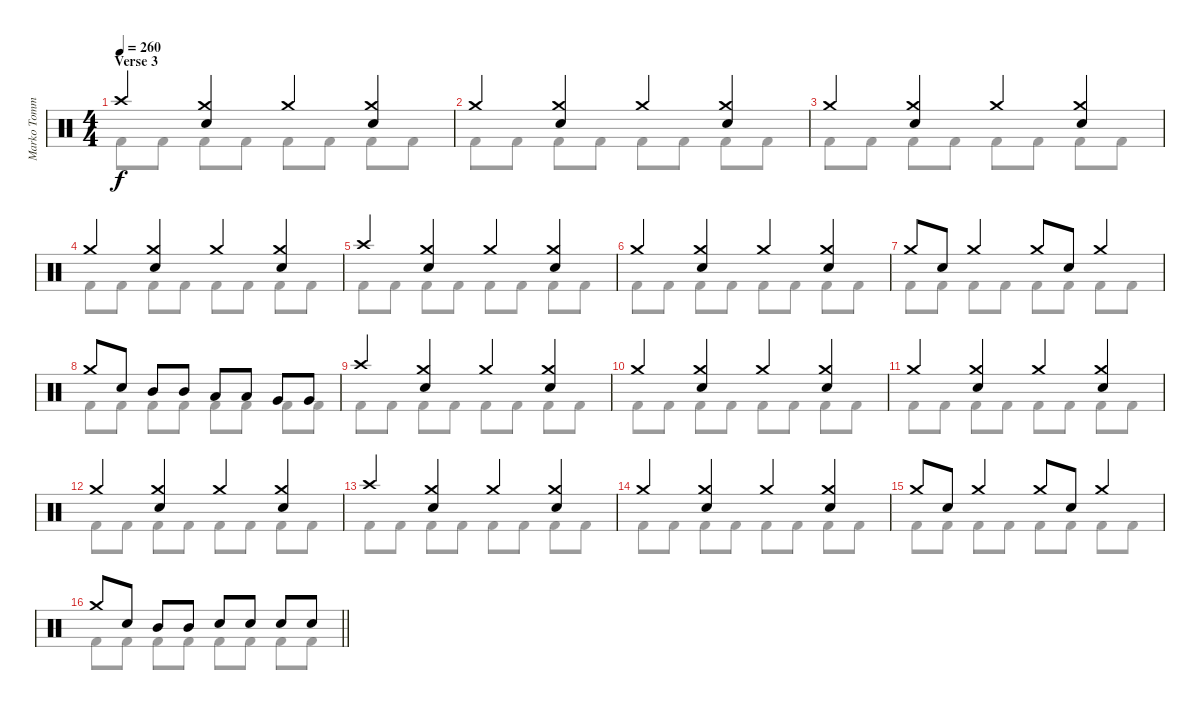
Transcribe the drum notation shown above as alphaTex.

\track ("Marko Tommila (drums)" "Marko Tomm") {instrument percussion}
\staff {score}
\articulation defaults
\voice
\ts (4 4)
\section ("" "Verse 3")
\tempo 260
\clef neutral
\ks aminor "Crash high (hit)".4{dy f}
("Crash medium (hit)" "Electric Snare (hit)").4 "Crash medium (hit)".4 ("Crash medium (hit)" "Electric Snare (hit)").4 |
"Crash medium (hit)".4 ("Crash medium (hit)" "Electric Snare (hit)").4 "Crash medium (hit)".4 ("Crash medium (hit)" "Electric Snare (hit)").4 |
"Crash medium (hit)".4 ("Crash medium (hit)" "Electric Snare (hit)").4 "Crash medium (hit)".4 ("Crash medium (hit)" "Electric Snare (hit)").4 |
"Crash medium (hit)".4 ("Crash medium (hit)" "Electric Snare (hit)").4 "Crash medium (hit)".4 ("Crash medium (hit)" "Electric Snare (hit)").4 |
"Crash high (hit)".4 ("Crash medium (hit)" "Electric Snare (hit)").4 "Crash medium (hit)".4 ("Crash medium (hit)" "Electric Snare (hit)").4 |
"Crash medium (hit)".4 ("Crash medium (hit)" "Electric Snare (hit)").4 "Crash medium (hit)".4 ("Crash medium (hit)" "Electric Snare (hit)").4 |
"Crash medium (hit)".8 "Electric Snare (hit)".8 "Crash medium (hit)".4 "Crash medium (hit)".8 "Electric Snare (hit)".8 "Crash medium (hit)".4 |
"Crash medium (hit)".8 "Electric Snare (hit)".8 "Mid Tom (hit)".8 "Mid Tom (hit)".8 "Low Tom (hit)".8 "Low Tom (hit)".8 "Very Low Tom (hit)".8 "Very Low Tom (hit)".8 |
"Crash high (hit)".4 ("Crash medium (hit)" "Electric Snare (hit)").4 "Crash medium (hit)".4 ("Crash medium (hit)" "Electric Snare (hit)").4 |
"Crash medium (hit)".4 ("Crash medium (hit)" "Electric Snare (hit)").4 "Crash medium (hit)".4 ("Crash medium (hit)" "Electric Snare (hit)").4 |
"Crash medium (hit)".4 ("Crash medium (hit)" "Electric Snare (hit)").4 "Crash medium (hit)".4 ("Crash medium (hit)" "Electric Snare (hit)").4 |
"Crash medium (hit)".4 ("Crash medium (hit)" "Electric Snare (hit)").4 "Crash medium (hit)".4 ("Crash medium (hit)" "Electric Snare (hit)").4 |
"Crash high (hit)".4 ("Crash medium (hit)" "Electric Snare (hit)").4 "Crash medium (hit)".4 ("Crash medium (hit)" "Electric Snare (hit)").4 |
"Crash medium (hit)".4 ("Crash medium (hit)" "Electric Snare (hit)").4 "Crash medium (hit)".4 ("Crash medium (hit)" "Electric Snare (hit)").4 |
"Crash medium (hit)".8 "Electric Snare (hit)".8 "Crash medium (hit)".4 "Crash medium (hit)".8 "Electric Snare (hit)".8 "Crash medium (hit)".4 |
\barLineRight lightlight "Crash medium (hit)".8 "Electric Snare (hit)".8 "Mid Tom (hit)".8 "Mid Tom (hit)".8 "Electric Snare (hit)".8 "Electric Snare (hit)".8 "Electric Snare (hit)".8 "Electric Snare (hit)".8
\voice
\clef neutral
\ottava regular
\simile none
\ks aminor "Kick (hit) 2".8{dy f} "Kick (hit) 2".8 "Kick (hit) 2".8 "Kick (hit) 2".8 "Kick (hit) 2".8 "Kick (hit) 2".8 "Kick (hit) 2".8 "Kick (hit) 2".8
|
"Kick (hit) 2".8 "Kick (hit) 2".8 "Kick (hit) 2".8 "Kick (hit) 2".8 "Kick (hit) 2".8 "Kick (hit) 2".8 "Kick (hit) 2".8 "Kick (hit) 2".8 |
"Kick (hit) 2".8 "Kick (hit) 2".8 "Kick (hit) 2".8 "Kick (hit) 2".8 "Kick (hit) 2".8 "Kick (hit) 2".8 "Kick (hit) 2".8 "Kick (hit) 2".8 |
"Kick (hit) 2".8 "Kick (hit) 2".8 "Kick (hit) 2".8 "Kick (hit) 2".8 "Kick (hit) 2".8 "Kick (hit) 2".8 "Kick (hit) 2".8 "Kick (hit) 2".8 |
"Kick (hit) 2".8 "Kick (hit) 2".8 "Kick (hit) 2".8 "Kick (hit) 2".8 "Kick (hit) 2".8 "Kick (hit) 2".8 "Kick (hit) 2".8 "Kick (hit) 2".8 |
"Kick (hit) 2".8 "Kick (hit) 2".8 "Kick (hit) 2".8 "Kick (hit) 2".8 "Kick (hit) 2".8 "Kick (hit) 2".8 "Kick (hit) 2".8 "Kick (hit) 2".8 |
"Kick (hit) 2".8 "Kick (hit) 2".8 "Kick (hit) 2".8 "Kick (hit) 2".8 "Kick (hit) 2".8 "Kick (hit) 2".8 "Kick (hit) 2".8 "Kick (hit) 2".8 |
"Kick (hit) 2".8 "Kick (hit) 2".8 "Kick (hit) 2".8 "Kick (hit) 2".8 "Kick (hit) 2".8 "Kick (hit) 2".8 "Kick (hit) 2".8 "Kick (hit) 2".8 |
"Kick (hit) 2".8 "Kick (hit) 2".8 "Kick (hit) 2".8 "Kick (hit) 2".8 "Kick (hit) 2".8 "Kick (hit) 2".8 "Kick (hit) 2".8 "Kick (hit) 2".8 |
"Kick (hit) 2".8 "Kick (hit) 2".8 "Kick (hit) 2".8 "Kick (hit) 2".8 "Kick (hit) 2".8 "Kick (hit) 2".8 "Kick (hit) 2".8 "Kick (hit) 2".8 |
"Kick (hit) 2".8 "Kick (hit) 2".8 "Kick (hit) 2".8 "Kick (hit) 2".8 "Kick (hit) 2".8 "Kick (hit) 2".8 "Kick (hit) 2".8 "Kick (hit) 2".8 |
"Kick (hit) 2".8 "Kick (hit) 2".8 "Kick (hit) 2".8 "Kick (hit) 2".8 "Kick (hit) 2".8 "Kick (hit) 2".8 "Kick (hit) 2".8 "Kick (hit) 2".8 |
"Kick (hit) 2".8 "Kick (hit) 2".8 "Kick (hit) 2".8 "Kick (hit) 2".8 "Kick (hit) 2".8 "Kick (hit) 2".8 "Kick (hit) 2".8 "Kick (hit) 2".8 |
"Kick (hit) 2".8 "Kick (hit) 2".8 "Kick (hit) 2".8 "Kick (hit) 2".8 "Kick (hit) 2".8 "Kick (hit) 2".8 "Kick (hit) 2".8 "Kick (hit) 2".8 |
"Kick (hit) 2".8 "Kick (hit) 2".8 "Kick (hit) 2".8 "Kick (hit) 2".8 "Kick (hit) 2".8 "Kick (hit) 2".8 "Kick (hit) 2".8 "Kick (hit) 2".8 |
\barLineRight lightlight "Kick (hit) 2".8 "Kick (hit) 2".8 "Kick (hit) 2".8 "Kick (hit) 2".8 "Kick (hit) 2".8 "Kick (hit) 2".8 "Kick (hit) 2".8 "Kick (hit) 2".8
